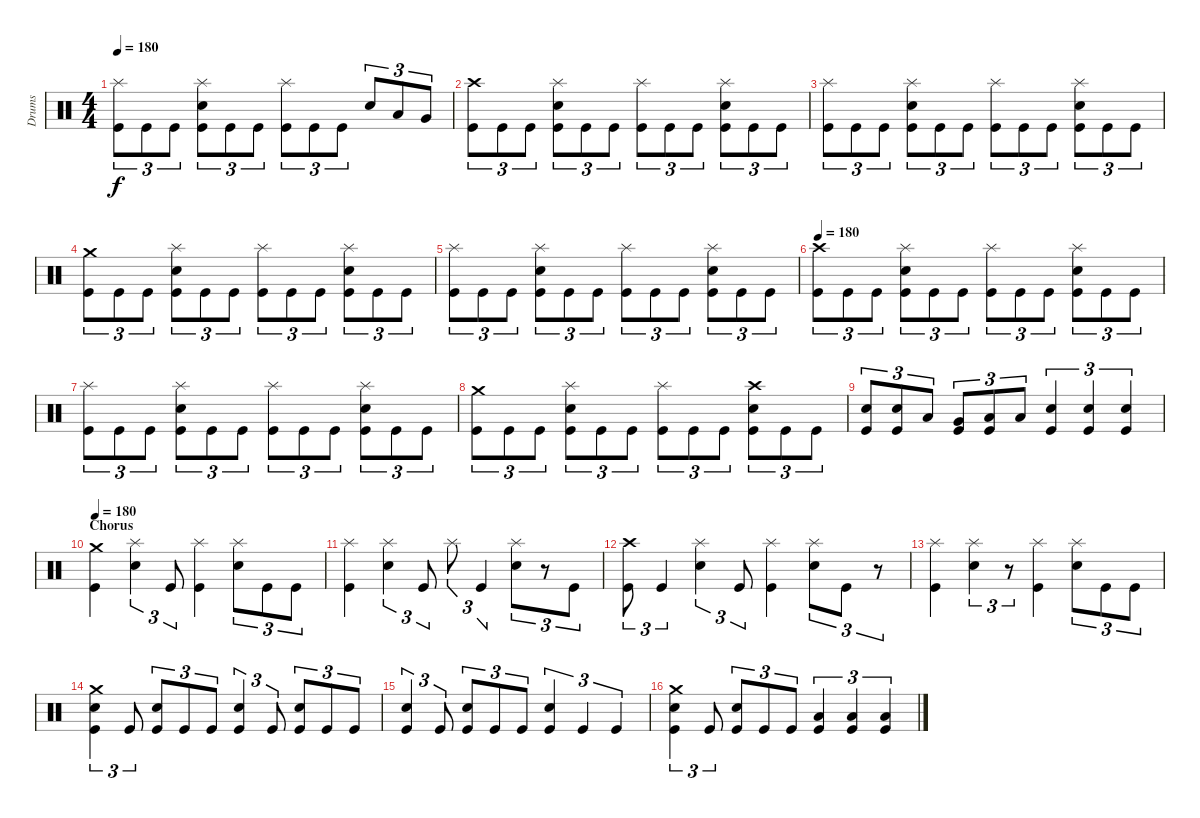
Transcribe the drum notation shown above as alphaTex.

\track ("Drums" "Drums") {instrument percussion}
\staff {score}
\articulation defaults
\ts (4 4)
\tempo 180
\clef neutral
\ks c
("Splash (hit)" "Kick (hit)").8{tu (3 2) dy f} "Kick (hit)".8{tu (3 2)} "Kick (hit)".8{tu (3 2)} ("Splash (hit)" "Electric Snare (hit)" "Kick (hit)").8{tu (3 2)} "Kick (hit)".8{tu (3 2)} "Kick (hit)".8{tu (3 2)} ("Splash (hit)" "Kick (hit)").8{tu (3 2)} "Kick (hit)".8{tu (3 2)} "Kick (hit)".8{tu (3 2)} "Electric Snare (hit)".8{tu (3 2)} "Low Floor Tom (hit)".8{tu (3 2)} "Very Low Tom (hit)".8{tu (3 2)} |
("Crash high (hit)" "Kick (hit)").8{tu (3 2)} "Kick (hit)".8{tu (3 2)} "Kick (hit)".8{tu (3 2)} ("Splash (hit)" "Electric Snare (hit)" "Kick (hit)").8{tu (3 2)} "Kick (hit)".8{tu (3 2)} "Kick (hit)".8{tu (3 2)} ("Splash (hit)" "Kick (hit)").8{tu (3 2)} "Kick (hit)".8{tu (3 2)} "Kick (hit)".8{tu (3 2)} ("Splash (hit)" "Electric Snare (hit)" "Kick (hit)").8{tu (3 2)} "Kick (hit)".8{tu (3 2)} "Kick (hit)".8{tu (3 2)} |
("Splash (hit)" "Kick (hit)").8{tu (3 2)} "Kick (hit)".8{tu (3 2)} "Kick (hit)".8{tu (3 2)} ("Splash (hit)" "Electric Snare (hit)" "Kick (hit)").8{tu (3 2)} "Kick (hit)".8{tu (3 2)} "Kick (hit)".8{tu (3 2)} ("Splash (hit)" "Kick (hit)").8{tu (3 2)} "Kick (hit)".8{tu (3 2)} "Kick (hit)".8{tu (3 2)} ("Splash (hit)" "Electric Snare (hit)" "Kick (hit)").8{tu (3 2)} "Kick (hit)".8{tu (3 2)} "Kick (hit)".8{tu (3 2)} |
("Crash medium (hit)" "Kick (hit)").8{tu (3 2)} "Kick (hit)".8{tu (3 2)} "Kick (hit)".8{tu (3 2)} ("Splash (hit)" "Electric Snare (hit)" "Kick (hit)").8{tu (3 2)} "Kick (hit)".8{tu (3 2)} "Kick (hit)".8{tu (3 2)} ("Splash (hit)" "Kick (hit)").8{tu (3 2)} "Kick (hit)".8{tu (3 2)} "Kick (hit)".8{tu (3 2)} ("Splash (hit)" "Electric Snare (hit)" "Kick (hit)").8{tu (3 2)} "Kick (hit)".8{tu (3 2)} "Kick (hit)".8{tu (3 2)} |
("Splash (hit)" "Kick (hit)").8{tu (3 2)} "Kick (hit)".8{tu (3 2)} "Kick (hit)".8{tu (3 2)} ("Splash (hit)" "Electric Snare (hit)" "Kick (hit)").8{tu (3 2)} "Kick (hit)".8{tu (3 2)} "Kick (hit)".8{tu (3 2)} ("Splash (hit)" "Kick (hit)").8{tu (3 2)} "Kick (hit)".8{tu (3 2)} "Kick (hit)".8{tu (3 2)} ("Splash (hit)" "Electric Snare (hit)" "Kick (hit)").8{tu (3 2)} "Kick (hit)".8{tu (3 2)} "Kick (hit)".8{tu (3 2)} |
\tempo 180
("Crash high (hit)" "Kick (hit)").8{tu (3 2)} "Kick (hit)".8{tu (3 2)} "Kick (hit)".8{tu (3 2)} ("Splash (hit)" "Electric Snare (hit)" "Kick (hit)").8{tu (3 2)} "Kick (hit)".8{tu (3 2)} "Kick (hit)".8{tu (3 2)} ("Splash (hit)" "Kick (hit)").8{tu (3 2)} "Kick (hit)".8{tu (3 2)} "Kick (hit)".8{tu (3 2)} ("Splash (hit)" "Electric Snare (hit)" "Kick (hit)").8{tu (3 2)} "Kick (hit)".8{tu (3 2)} "Kick (hit)".8{tu (3 2)} |
("Splash (hit)" "Kick (hit)").8{tu (3 2)} "Kick (hit)".8{tu (3 2)} "Kick (hit)".8{tu (3 2)} ("Splash (hit)" "Electric Snare (hit)" "Kick (hit)").8{tu (3 2)} "Kick (hit)".8{tu (3 2)} "Kick (hit)".8{tu (3 2)} ("Splash (hit)" "Kick (hit)").8{tu (3 2)} "Kick (hit)".8{tu (3 2)} "Kick (hit)".8{tu (3 2)} ("Splash (hit)" "Electric Snare (hit)" "Kick (hit)").8{tu (3 2)} "Kick (hit)".8{tu (3 2)} "Kick (hit)".8{tu (3 2)} |
("Crash medium (hit)" "Kick (hit)").8{tu (3 2)} "Kick (hit)".8{tu (3 2)} "Kick (hit)".8{tu (3 2)} ("Splash (hit)" "Electric Snare (hit)" "Kick (hit)").8{tu (3 2)} "Kick (hit)".8{tu (3 2)} "Kick (hit)".8{tu (3 2)} ("Splash (hit)" "Kick (hit)").8{tu (3 2)} "Kick (hit)".8{tu (3 2)} "Kick (hit)".8{tu (3 2)} ("Crash high (hit)" "Electric Snare (hit)" "Kick (hit)").8{tu (3 2)} "Kick (hit)".8{tu (3 2)} "Kick (hit)".8{tu (3 2)} |
("Electric Snare (hit)" "Kick (hit)").8{tu (3 2)} ("Electric Snare (hit)" "Kick (hit)").8{tu (3 2)} "Low Tom (hit)".8{tu (3 2)} ("Very Low Tom (hit)" "Kick (hit)").8{tu (3 2)} ("Low Floor Tom (hit)" "Kick (hit)").8{tu (3 2)} "Low Floor Tom (hit)".8{tu (3 2)} ("Electric Snare (hit)" "Kick (hit)").4{tu (3 2)} ("Electric Snare (hit)" "Kick (hit)").4{tu (3 2)} ("Electric Snare (hit)" "Kick (hit)").4{tu (3 2)} |
\section ("" "Chorus")
\tempo 180
("Crash medium (hit)" "Kick (hit)").4 ("Splash (hit)" "Electric Snare (hit)").4{tu (3 2)} "Kick (hit)".8{tu (3 2)} ("Splash (hit)" "Kick (hit)").4 ("Splash (hit)" "Electric Snare (hit)").8{tu (3 2)} "Kick (hit)".8{tu (3 2)} "Kick (hit)".8{tu (3 2)} |
("Splash (hit)" "Kick (hit)").4 ("Splash (hit)" "Electric Snare (hit)").4{tu (3 2)} "Kick (hit)".8{tu (3 2)} "Splash (hit)".8{tu (3 2)} "Kick (hit)".4{tu (3 2)} ("Splash (hit)" "Electric Snare (hit)").8{tu (3 2)} r.8{tu (3 2)} "Kick (hit)".8{tu (3 2)} |
("Crash high (hit)" "Kick (hit)").8{tu (3 2)} "Kick (hit)".4{tu (3 2)} ("Splash (hit)" "Electric Snare (hit)").4{tu (3 2)} "Kick (hit)".8{tu (3 2)} ("Splash (hit)" "Kick (hit)").4 ("Splash (hit)" "Electric Snare (hit)").8{tu (3 2)} "Kick (hit)".8{tu (3 2)} r.8{tu (3 2)} |
("Splash (hit)" "Kick (hit)").4 ("Splash (hit)" "Electric Snare (hit)").4{tu (3 2)} r.8{tu (3 2)} ("Splash (hit)" "Kick (hit)").4 ("Splash (hit)" "Electric Snare (hit)").8{tu (3 2)} "Kick (hit)".8{tu (3 2)} "Kick (hit)".8{tu (3 2)} |
("Crash medium (hit)" "Electric Snare (hit)" "Kick (hit)").4{tu (3 2)} "Kick (hit)".8{tu (3 2)} ("Electric Snare (hit)" "Kick (hit)").8{tu (3 2)} "Kick (hit)".8{tu (3 2)} "Kick (hit)".8{tu (3 2)} ("Electric Snare (hit)" "Kick (hit)").4{tu (3 2)} "Kick (hit)".8{tu (3 2)} ("Electric Snare (hit)" "Kick (hit)").8{tu (3 2)} "Kick (hit)".8{tu (3 2)} "Kick (hit)".8{tu (3 2)} |
("Electric Snare (hit)" "Kick (hit)").4{tu (3 2)} "Kick (hit)".8{tu (3 2)} ("Electric Snare (hit)" "Kick (hit)").8{tu (3 2)} "Kick (hit)".8{tu (3 2)} "Kick (hit)".8{tu (3 2)} ("Electric Snare (hit)" "Kick (hit)").4{tu (3 2)} "Kick (hit)".4{tu (3 2)} "Kick (hit)".4{tu (3 2)} |
("Crash medium (hit)" "Electric Snare (hit)" "Kick (hit)").4{tu (3 2)} "Kick (hit)".8{tu (3 2)} ("Electric Snare (hit)" "Kick (hit)").8{tu (3 2)} "Kick (hit)".8{tu (3 2)} "Kick (hit)".8{tu (3 2)} ("Low Floor Tom (hit)" "Kick (hit)").4{tu (3 2)} ("Low Floor Tom (hit)" "Kick (hit)").4{tu (3 2)} ("Low Floor Tom (hit)" "Kick (hit)").4{tu (3 2)}
